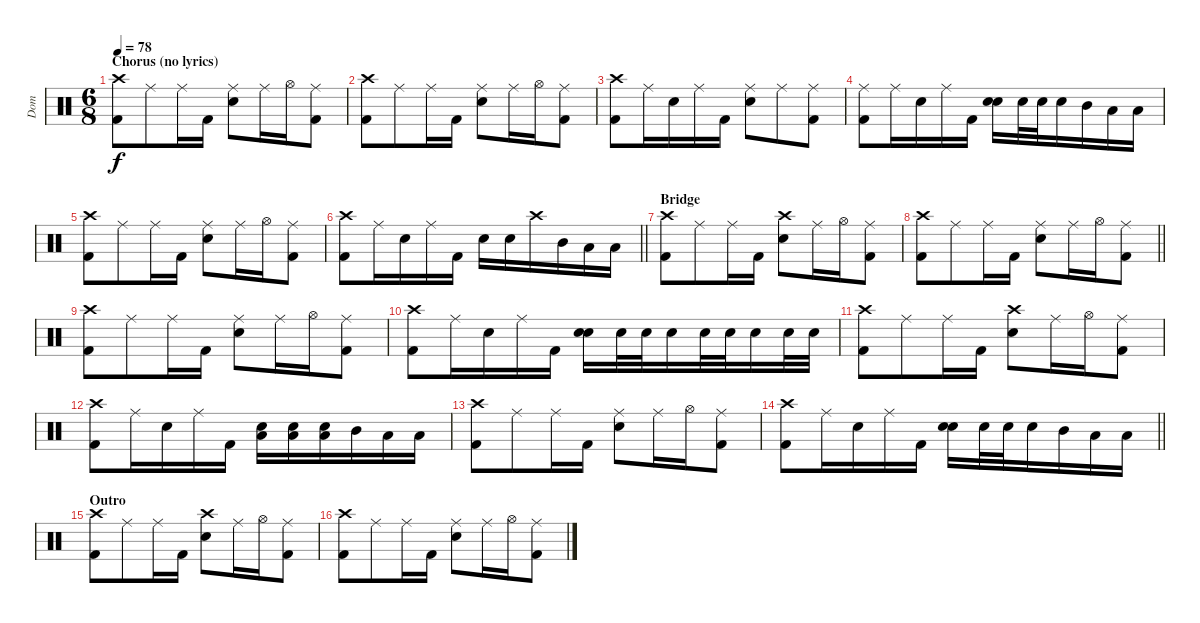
\track ("Dom" "Dom") {instrument percussion}
\staff {score}
\articulation defaults
\ts (6 8)
\section ("" "Chorus (no lyrics)")
\tempo 78
\clef neutral
\ks c
("Crash high (hit)" "Kick (hit) 2").8{dy f} "Ride (middle)".8 "Ride (middle)".16 "Kick (hit) 2".16 ("Ride (middle)" "Electric Snare (hit)").8 "Ride (middle)".16 "Hi-Hat (open)".16 ("Ride (middle)" "Kick (hit) 2").8 |
("Crash high (hit)" "Kick (hit) 2").8 "Ride (middle)".8 "Ride (middle)".16 "Kick (hit) 2".16 ("Ride (middle)" "Electric Snare (hit)").8 "Ride (middle)".16 "Hi-Hat (open)".16 ("Ride (middle)" "Kick (hit) 2").8 |
("Crash high (hit)" "Kick (hit) 2").8 "Ride (middle)".16 "Electric Snare (hit)".16 "Ride (middle)".16 "Kick (hit) 2".16 ("Ride (middle)" "Electric Snare (hit)").8 "Ride (middle)".8 ("Ride (middle)" "Kick (hit) 2").8 |
("Ride (middle)" "Kick (hit) 2").8 "Ride (middle)".16 "Electric Snare (hit)".16 "Ride (middle)".16 "Kick (hit) 2".16 ("Electric Snare (hit)" "Electric Snare (hit)").16{bd 60} "Electric Snare (hit)".32 "Electric Snare (hit)".32 "Electric Snare (hit)".16 "Mid Tom (hit)".16 "Low Tom (hit)".16 "Low Floor Tom (hit)".16 |
("Crash high (hit)" "Kick (hit) 2").8 "Ride (middle)".8 "Ride (middle)".16 "Kick (hit) 2".16 ("Ride (middle)" "Electric Snare (hit)").8 "Ride (middle)".16 "Hi-Hat (open)".16 ("Ride (middle)" "Kick (hit) 2").8 |
\barLineRight lightlight
("Crash high (hit)" "Kick (hit) 2").8 "Ride (middle)".16 "Electric Snare (hit)".16 "Ride (middle)".16 "Kick (hit) 2".16 "Electric Snare (hit)".16 "Electric Snare (hit)".16 "Crash high (hit)".16 "Mid Tom (hit)".16 "Low Tom (hit)".16 "Low Floor Tom (hit)".16 |
\section ("" "Bridge")
("Crash high (hit)" "Kick (hit) 2").8 "Ride (middle)".8 "Ride (middle)".16 "Kick (hit) 2".16 ("Crash high (hit)" "Electric Snare (hit)").8 "Ride (middle)".16 "Hi-Hat (open)".16 ("Ride (middle)" "Kick (hit) 2").8 |
\barLineRight lightlight
("Crash high (hit)" "Kick (hit) 2").8 "Ride (middle)".8 "Ride (middle)".16 "Kick (hit) 2".16 ("Ride (middle)" "Electric Snare (hit)").8 "Ride (middle)".16 "Hi-Hat (open)".16 ("Ride (middle)" "Kick (hit) 2").8 |
("Crash high (hit)" "Kick (hit) 2").8 "Ride (middle)".8 "Ride (middle)".16 "Kick (hit) 2".16 ("Ride (middle)" "Electric Snare (hit)").8 "Ride (middle)".16 "Hi-Hat (open)".16 ("Ride (middle)" "Kick (hit) 2").8 |
("Crash high (hit)" "Kick (hit) 2").8 "Ride (middle)".16 "Electric Snare (hit)".16 "Ride (middle)".16 "Kick (hit) 2".16 ("Electric Snare (hit)" "Electric Snare (hit)").16{bd 60} "Electric Snare (hit)".32 "Electric Snare (hit)".32 "Electric Snare (hit)".16 "Electric Snare (hit)".32 "Electric Snare (hit)".32 "Electric Snare (hit)".16 "Electric Snare (hit)".32 "Electric Snare (hit)".32 |
("Crash high (hit)" "Kick (hit) 2").8 "Ride (middle)".8 "Ride (middle)".16 "Kick (hit) 2".16 ("Crash high (hit)" "Electric Snare (hit)").8 "Ride (middle)".16 "Hi-Hat (open)".16 ("Ride (middle)" "Kick (hit) 2").8 |
("Crash high (hit)" "Kick (hit) 2").8 "Ride (middle)".16 "Electric Snare (hit)".16 "Ride (middle)".16 "Kick (hit) 2".16 ("Electric Snare (hit)" "Low Floor Tom (hit)").16 ("Electric Snare (hit)" "Low Floor Tom (hit)").16 ("Electric Snare (hit)" "Low Floor Tom (hit)").16 "Mid Tom (hit)".16 "Low Tom (hit)".16 "Low Floor Tom (hit)".16 |
("Crash high (hit)" "Kick (hit) 2").8 "Ride (middle)".8 "Ride (middle)".16 "Kick (hit) 2".16 ("Ride (middle)" "Electric Snare (hit)").8 "Ride (middle)".16 "Hi-Hat (open)".16 ("Ride (middle)" "Kick (hit) 2").8 |
\barLineRight lightlight
("Crash high (hit)" "Kick (hit) 2").8 "Ride (middle)".16 "Electric Snare (hit)".16 "Ride (middle)".16 "Kick (hit) 2".16 ("Electric Snare (hit)" "Electric Snare (hit)").16{bd 60} "Electric Snare (hit)".32 "Electric Snare (hit)".32 "Electric Snare (hit)".16 "Mid Tom (hit)".16 "Low Tom (hit)".16 "Low Floor Tom (hit)".16 |
\section ("" "Outro")
("Crash high (hit)" "Kick (hit) 2").8 "Ride (middle)".8 "Ride (middle)".16 "Kick (hit) 2".16 ("Crash high (hit)" "Electric Snare (hit)").8 "Ride (middle)".16 "Hi-Hat (open)".16 ("Ride (middle)" "Kick (hit) 2").8 |
("Crash high (hit)" "Kick (hit) 2").8 "Ride (middle)".8 "Ride (middle)".16 "Kick (hit) 2".16 ("Ride (middle)" "Electric Snare (hit)").8 "Ride (middle)".16 "Hi-Hat (open)".16 ("Ride (middle)" "Kick (hit) 2").8
